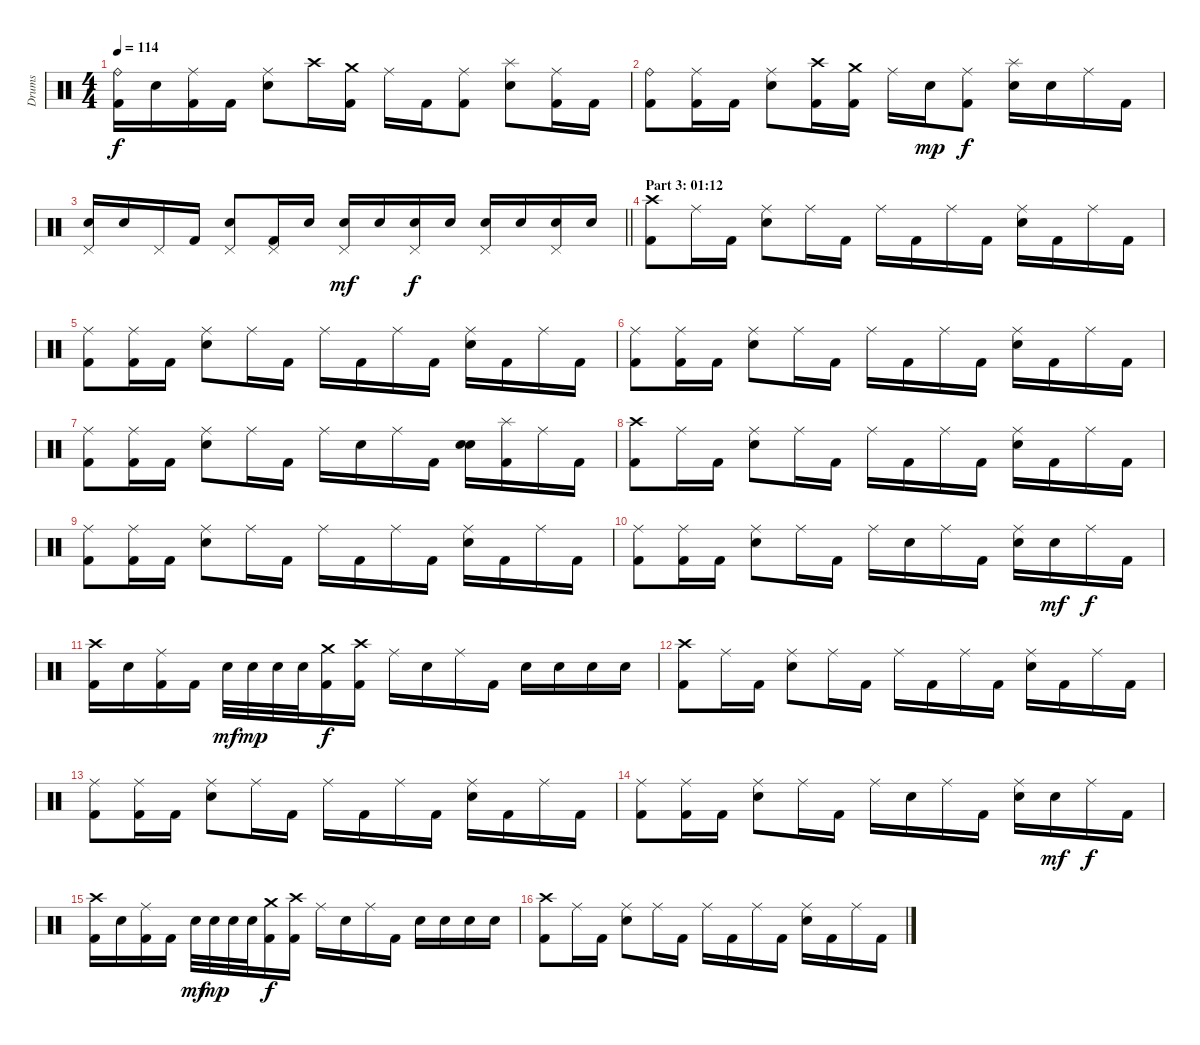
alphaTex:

\track ("Drums" "Drums") {instrument percussion}
\staff {score}
\articulation defaults
\ts (4 4)
\tempo 114
\clef neutral
\ks c
("Ride (bell)" "Kick (hit) 2").16{dy f} "Electric Snare (hit)".16 ("Ride (middle)" "Kick (hit) 2").16 "Kick (hit) 2".16 ("Ride (middle)" "Electric Snare (hit)").8 "Crash high (hit)".16 ("Crash medium (hit)" "Kick (hit) 2").16 "Ride (middle)".16 "Kick (hit) 2".16 ("Ride (middle)" "Kick (hit) 2").8 ("Splash (hit)" "Electric Snare (hit)").8 ("Ride (middle)" "Kick (hit) 2").16 "Kick (hit) 2".16 |
("Ride (bell)" "Kick (hit) 2").8 ("Ride (middle)" "Kick (hit) 2").16 "Kick (hit) 2".16 ("Ride (middle)" "Electric Snare (hit)").8 ("Crash high (hit)" "Kick (hit) 2").16 ("Crash medium (hit)" "Kick (hit) 2").16 "Ride (middle)".16 "Electric Snare (hit)".16{dy mp} ("Ride (middle)" "Kick (hit) 2").8{dy f} ("Splash (hit)" "Electric Snare (hit)").16 "Electric Snare (hit)".16 "Ride (middle)".16 "Kick (hit) 2".16 |
\barLineRight lightlight
("Pedal Hi-Hat (hit)" "Electric Snare (hit)").16 "Electric Snare (hit)".16 "Pedal Hi-Hat (hit)".16 "Kick (hit) 2".16 ("Pedal Hi-Hat (hit)" "Electric Snare (hit)").8 ("Pedal Hi-Hat (hit)" "Kick (hit) 2").16 "Electric Snare (hit)".16 ("Pedal Hi-Hat (hit)" "Electric Snare (hit)").16{dy mf} "Electric Snare (hit)".16 ("Pedal Hi-Hat (hit)" "Electric Snare (hit)").16{dy f} "Electric Snare (hit)".16 ("Pedal Hi-Hat (hit)" "Electric Snare (hit)").16 "Electric Snare (hit)".16 ("Pedal Hi-Hat (hit)" "Electric Snare (hit)").16 "Electric Snare (hit)".16 |
\section ("" "Part 3: 01:12")
("Crash high (hit)" "Kick (hit) 2").8 "Ride (middle)".16 "Kick (hit) 2".16 ("Ride (middle)" "Electric Snare (hit)").8 "Ride (middle)".16 "Kick (hit) 2".16 "Ride (middle)".16 "Kick (hit) 2".16 "Ride (middle)".16 "Kick (hit) 2".16 ("Ride (middle)" "Electric Snare (hit)").16 "Kick (hit) 2".16 "Ride (middle)".16 "Kick (hit) 2".16 |
("Ride (middle)" "Kick (hit) 2").8 ("Ride (middle)" "Kick (hit) 2").16 "Kick (hit) 2".16 ("Ride (middle)" "Electric Snare (hit)").8 "Ride (middle)".16 "Kick (hit) 2".16 "Ride (middle)".16 "Kick (hit) 2".16 "Ride (middle)".16 "Kick (hit) 2".16 ("Ride (middle)" "Electric Snare (hit)").16 "Kick (hit) 2".16 "Ride (middle)".16 "Kick (hit) 2".16 |
("Ride (middle)" "Kick (hit) 2").8 ("Ride (middle)" "Kick (hit) 2").16 "Kick (hit) 2".16 ("Ride (middle)" "Electric Snare (hit)").8 "Ride (middle)".16 "Kick (hit) 2".16 "Ride (middle)".16 "Kick (hit) 2".16 "Ride (middle)".16 "Kick (hit) 2".16 ("Ride (middle)" "Electric Snare (hit)").16 "Kick (hit) 2".16 "Ride (middle)".16 "Kick (hit) 2".16 |
("Ride (middle)" "Kick (hit) 2").8 ("Ride (middle)" "Kick (hit) 2").16 "Kick (hit) 2".16 ("Ride (middle)" "Electric Snare (hit)").8 "Ride (middle)".16 "Kick (hit) 2".16 "Ride (middle)".16 "Electric Snare (hit)".16 "Ride (middle)".16 "Kick (hit) 2".16 ("Electric Snare (hit)" "Electric Snare (hit)").16{bd 60} ("Splash (hit)" "Kick (hit) 2").16 "Ride (middle)".16 "Kick (hit) 2".16 |
("Crash high (hit)" "Kick (hit) 2").8 "Ride (middle)".16 "Kick (hit) 2".16 ("Ride (middle)" "Electric Snare (hit)").8 "Ride (middle)".16 "Kick (hit) 2".16 "Ride (middle)".16 "Kick (hit) 2".16 "Ride (middle)".16 "Kick (hit) 2".16 ("Ride (middle)" "Electric Snare (hit)").16 "Kick (hit) 2".16 "Ride (middle)".16 "Kick (hit) 2".16 |
("Ride (middle)" "Kick (hit) 2").8 ("Ride (middle)" "Kick (hit) 2").16 "Kick (hit) 2".16 ("Ride (middle)" "Electric Snare (hit)").8 "Ride (middle)".16 "Kick (hit) 2".16 "Ride (middle)".16 "Kick (hit) 2".16 "Ride (middle)".16 "Kick (hit) 2".16 ("Ride (middle)" "Electric Snare (hit)").16 "Kick (hit) 2".16 "Ride (middle)".16 "Kick (hit) 2".16 |
("Ride (middle)" "Kick (hit) 2").8 ("Ride (middle)" "Kick (hit) 2").16 "Kick (hit) 2".16 ("Ride (middle)" "Electric Snare (hit)").8 "Ride (middle)".16 "Kick (hit) 2".16 "Ride (middle)".16 "Electric Snare (hit)".16 "Ride (middle)".16 "Kick (hit) 2".16 ("Ride (middle)" "Electric Snare (hit)").16 "Electric Snare (hit)".16{dy mf} "Ride (middle)".16{dy f} "Kick (hit) 2".16 |
("Crash high (hit)" "Kick (hit) 2").16 "Electric Snare (hit)".16 ("Ride (middle)" "Kick (hit) 2").16 "Kick (hit) 2".16 "Electric Snare (hit)".32{dy mf} "Electric Snare (hit)".32{dy mp} "Electric Snare (hit)".32 "Electric Snare (hit)".32 ("Crash medium (hit)" "Kick (hit) 2").16{dy f} ("Crash high (hit)" "Kick (hit) 2").16 "Ride (middle)".16 "Electric Snare (hit)".16 "Ride (middle)".16 "Kick (hit) 2".16 "Electric Snare (hit)".16 "Electric Snare (hit)".16 "Electric Snare (hit)".16 "Electric Snare (hit)".16 |
("Crash high (hit)" "Kick (hit) 2").8 "Ride (middle)".16 "Kick (hit) 2".16 ("Ride (middle)" "Electric Snare (hit)").8 "Ride (middle)".16 "Kick (hit) 2".16 "Ride (middle)".16 "Kick (hit) 2".16 "Ride (middle)".16 "Kick (hit) 2".16 ("Ride (middle)" "Electric Snare (hit)").16 "Kick (hit) 2".16 "Ride (middle)".16 "Kick (hit) 2".16 |
("Ride (middle)" "Kick (hit) 2").8 ("Ride (middle)" "Kick (hit) 2").16 "Kick (hit) 2".16 ("Ride (middle)" "Electric Snare (hit)").8 "Ride (middle)".16 "Kick (hit) 2".16 "Ride (middle)".16 "Kick (hit) 2".16 "Ride (middle)".16 "Kick (hit) 2".16 ("Ride (middle)" "Electric Snare (hit)").16 "Kick (hit) 2".16 "Ride (middle)".16 "Kick (hit) 2".16 |
("Ride (middle)" "Kick (hit) 2").8 ("Ride (middle)" "Kick (hit) 2").16 "Kick (hit) 2".16 ("Ride (middle)" "Electric Snare (hit)").8 "Ride (middle)".16 "Kick (hit) 2".16 "Ride (middle)".16 "Electric Snare (hit)".16 "Ride (middle)".16 "Kick (hit) 2".16 ("Ride (middle)" "Electric Snare (hit)").16 "Electric Snare (hit)".16{dy mf} "Ride (middle)".16{dy f} "Kick (hit) 2".16 |
("Crash high (hit)" "Kick (hit) 2").16 "Electric Snare (hit)".16 ("Ride (middle)" "Kick (hit) 2").16 "Kick (hit) 2".16 "Electric Snare (hit)".32{dy mf} "Electric Snare (hit)".32{dy mp} "Electric Snare (hit)".32 "Electric Snare (hit)".32 ("Crash medium (hit)" "Kick (hit) 2").16{dy f} ("Crash high (hit)" "Kick (hit) 2").16 "Ride (middle)".16 "Electric Snare (hit)".16 "Ride (middle)".16 "Kick (hit) 2".16 "Electric Snare (hit)".16 "Electric Snare (hit)".16 "Electric Snare (hit)".16 "Electric Snare (hit)".16 |
("Crash high (hit)" "Kick (hit) 2").8 "Ride (middle)".16 "Kick (hit) 2".16 ("Ride (middle)" "Electric Snare (hit)").8 "Ride (middle)".16 "Kick (hit) 2".16 "Ride (middle)".16 "Kick (hit) 2".16 "Ride (middle)".16 "Kick (hit) 2".16 ("Ride (middle)" "Electric Snare (hit)").16 "Kick (hit) 2".16 "Ride (middle)".16 "Kick (hit) 2".16
